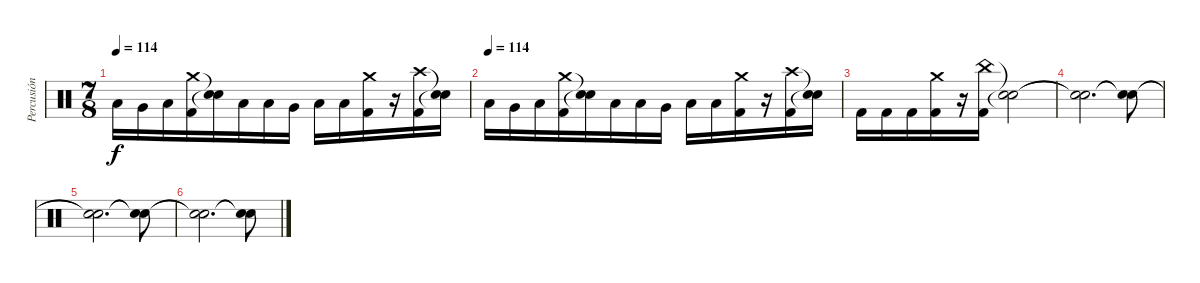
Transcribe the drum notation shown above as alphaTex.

\track ("Percusión" "Percusión") {instrument percussion}
\staff {score}
\articulation defaults
\ts (7 8)
\tempo 114
\clef neutral
\ks c "Low Tom (hit)".16{dy f} "Very Low Tom (hit)".16 "Low Floor Tom (hit)".16
("Crash medium (hit)" "Kick (hit) 2").16 ("Snare (hit)"{t} "Snare (hit)"{t}).16 "Low Tom (hit)".16 "Low Tom (hit)".16 "Very Low Tom (hit)".16 "Low Floor Tom (hit)".16 "Low Tom (hit)".16 ("Crash medium (hit)" "Kick (hit) 2").16 r.16 ("Crash high (hit)" "Kick (hit) 2").16 ("Snare (hit)"{t} "Snare (hit)"{t}).16 |
\tempo (114)
"Low Tom (hit)".16 "Very Low Tom (hit)".16 "Low Floor Tom (hit)".16 ("Crash medium (hit)" "Kick (hit) 2").16 ("Snare (hit)"{t} "Snare (hit)"{t}).16 "Low Tom (hit)".16 "Low Tom (hit)".16 "Very Low Tom (hit)".16 "Low Floor Tom (hit)".16 "Low Tom (hit)".16 ("Crash medium (hit)" "Kick (hit) 2").16 r.16 ("Crash high (hit)" "Kick (hit) 2").16 ("Snare (hit)"{t} "Snare (hit)"{t}).16 |
"Kick (hit) 2".16 "Kick (hit) 2".16 "Kick (hit) 2".16 ("Crash medium (hit)" "Kick (hit) 2").16 r.16 ("China (hit)" "Kick (hit) 2").16 ("Snare (hit)"{t} "Snare (hit)"{t}).2 |
("Snare (hit)"{t} "Snare (hit)"{t}).2{d} ("Snare (hit)"{t} "Snare (hit)"{t}).8 |
("Snare (hit)"{t} "Snare (hit)"{t}).2{d} ("Snare (hit)"{t} "Snare (hit)"{t}).8 |
("Snare (hit)"{t} "Snare (hit)"{t}).2{d} ("Snare (hit)"{t} "Snare (hit)"{t}).8
